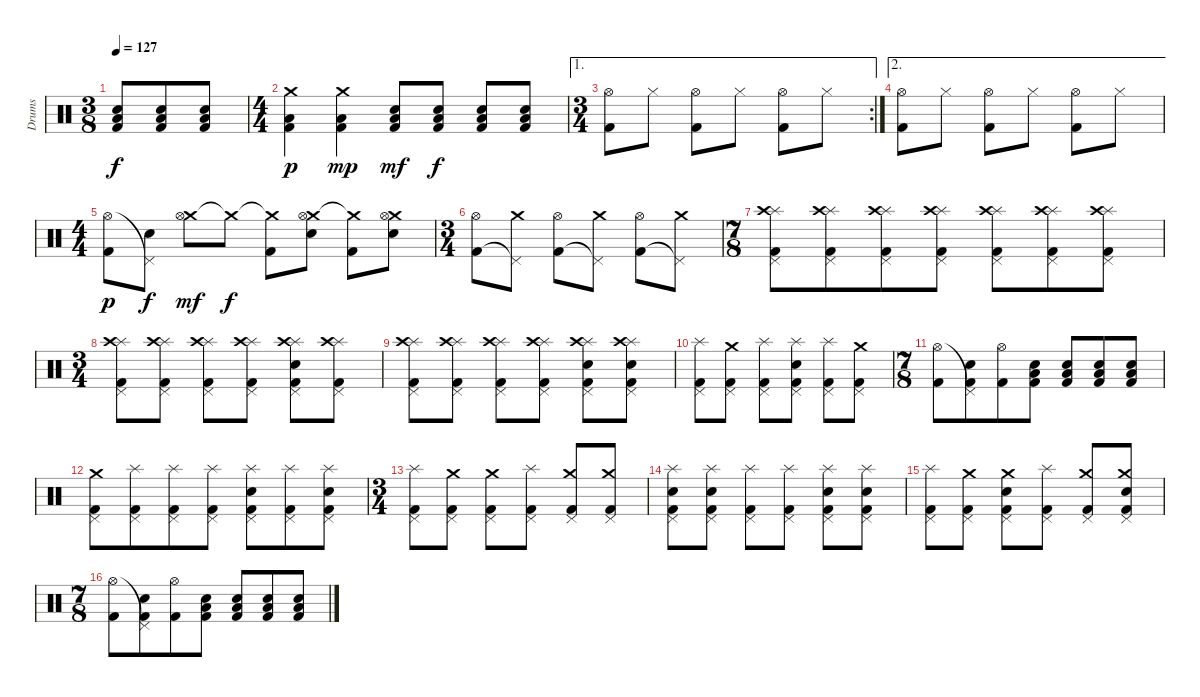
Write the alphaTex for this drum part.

\track ("Drums" "Drums") {instrument percussion}
\staff {score}
\articulation defaults
\ts (3 8)
\tempo 127
\clef neutral
\ks c
("Low Tom (hit)" "Electric Snare (hit)" "Kick (hit) 2").8{dy f} ("Low Tom (hit)" "Electric Snare (hit)" "Kick (hit) 2").8 ("Low Tom (hit)" "Electric Snare (hit)" "Kick (hit) 2").8 |
\ts (4 4)
("Crash medium (hit)" "Low Tom (hit)" "Kick (hit) 2").4{dy p} ("Crash medium (hit)" "Low Tom (hit)" "Kick (hit) 2").4{dy mp} ("Low Tom (hit)" "Electric Snare (hit)" "Kick (hit) 2").8{dy mf} ("Low Tom (hit)" "Electric Snare (hit)" "Kick (hit) 2").8{dy f} ("Low Tom (hit)" "Electric Snare (hit)" "Kick (hit) 2").8 ("Low Tom (hit)" "Electric Snare (hit)" "Kick (hit) 2").8 |
\ae 1
\rc 2
\ts (3 4)
("Hi-Hat (open)" "Kick (hit) 2").8 "Hi-Hat (closed)".8 ("Hi-Hat (open)" "Kick (hit) 2").8 "Hi-Hat (closed)".8 ("Hi-Hat (open)" "Kick (hit) 2").8 "Hi-Hat (closed)".8 |
\ae 2
("Hi-Hat (open)" "Kick (hit) 2").8 "Hi-Hat (closed)".8 ("Hi-Hat (open)" "Kick (hit) 2").8 "Hi-Hat (closed)".8 ("Hi-Hat (open)" "Kick (hit) 2").8 "Hi-Hat (closed)".8 |
\ts (4 4)
("Hi-Hat (open)" "Kick (hit) 2").8{dy p} ("Pedal Hi-Hat (hit)"{t} "Electric Snare (hit)").8{dy f} ("Crash medium (hit)" "Hi-Hat (open)").8{dy mf} "Crash medium (hit)"{t}.8{dy f} ("Crash medium (hit)"{t} "Kick (hit) 2").8 ("Crash medium (hit)" "Hi-Hat (open)" "Electric Snare (hit)").8 ("Crash medium (hit)"{t} "Kick (hit) 2").8 ("Crash medium (hit)" "Hi-Hat (open)" "Electric Snare (hit)").8 |
\ts (3 4)
("Hi-Hat (open)" "Kick (hit) 2").8 ("Crash medium (hit)" "Pedal Hi-Hat (hit)"{t}).8 ("Hi-Hat (open)" "Kick (hit) 2").8 ("Crash medium (hit)" "Pedal Hi-Hat (hit)"{t}).8 ("Hi-Hat (open)" "Kick (hit) 2").8 ("Crash medium (hit)" "Pedal Hi-Hat (hit)"{t}).8 |
\ts (7 8)
("Splash (hit)" "Crash high (hit)" "Pedal Hi-Hat (hit)" "Kick (hit) 2").8 ("Splash (hit)" "Crash high (hit)" "Pedal Hi-Hat (hit)" "Kick (hit) 2").8 ("Splash (hit)" "Crash high (hit)" "Pedal Hi-Hat (hit)" "Kick (hit) 2").8 ("Splash (hit)" "Crash high (hit)" "Pedal Hi-Hat (hit)" "Kick (hit) 2").8 ("Splash (hit)" "Crash high (hit)" "Pedal Hi-Hat (hit)" "Kick (hit) 2").8 ("Splash (hit)" "Crash high (hit)" "Pedal Hi-Hat (hit)" "Kick (hit) 2").8 ("Splash (hit)" "Crash high (hit)" "Pedal Hi-Hat (hit)" "Kick (hit) 2").8 |
\ts (3 4)
("Splash (hit)" "Crash high (hit)" "Pedal Hi-Hat (hit)" "Kick (hit) 2").8 ("Splash (hit)" "Crash high (hit)" "Pedal Hi-Hat (hit)" "Kick (hit) 2").8 ("Splash (hit)" "Crash high (hit)" "Pedal Hi-Hat (hit)" "Kick (hit) 2").8 ("Splash (hit)" "Crash high (hit)" "Pedal Hi-Hat (hit)" "Kick (hit) 2").8 ("Splash (hit)" "Crash high (hit)" "Pedal Hi-Hat (hit)" "Electric Snare (hit)" "Kick (hit) 2").8 ("Splash (hit)" "Crash high (hit)" "Pedal Hi-Hat (hit)" "Kick (hit) 2").8 |
("Splash (hit)" "Crash high (hit)" "Pedal Hi-Hat (hit)" "Kick (hit) 2").8 ("Splash (hit)" "Crash high (hit)" "Pedal Hi-Hat (hit)" "Kick (hit) 2").8 ("Splash (hit)" "Crash high (hit)" "Pedal Hi-Hat (hit)" "Kick (hit) 2").8 ("Splash (hit)" "Crash high (hit)" "Pedal Hi-Hat (hit)" "Kick (hit) 2").8 ("Splash (hit)" "Crash high (hit)" "Pedal Hi-Hat (hit)" "Electric Snare (hit)" "Kick (hit) 2").8 ("Splash (hit)" "Crash high (hit)" "Pedal Hi-Hat (hit)" "Electric Snare (hit)" "Kick (hit) 2").8 |
("Splash (hit)" "Pedal Hi-Hat (hit)" "Kick (hit) 2").8 ("Crash medium (hit)" "Pedal Hi-Hat (hit)" "Kick (hit) 2").8 ("Splash (hit)" "Pedal Hi-Hat (hit)" "Kick (hit) 2").8 ("Splash (hit)" "Pedal Hi-Hat (hit)" "Electric Snare (hit)" "Kick (hit) 2").8 ("Splash (hit)" "Pedal Hi-Hat (hit)" "Kick (hit) 2").8 ("Crash medium (hit)" "Pedal Hi-Hat (hit)" "Kick (hit) 2").8 |
\ts (7 8)
("Hi-Hat (open)" "Kick (hit) 2").8 ("Pedal Hi-Hat (hit)"{t} "Electric Snare (hit)" "Kick (hit) 2").8 ("Hi-Hat (open)" "Kick (hit) 2").8 ("Low Tom (hit)" "Electric Snare (hit)" "Kick (hit) 2").8 ("Low Tom (hit)" "Electric Snare (hit)" "Kick (hit) 2").8 ("Low Tom (hit)" "Electric Snare (hit)" "Kick (hit) 2").8 ("Low Tom (hit)" "Electric Snare (hit)" "Kick (hit) 2").8 |
("Crash medium (hit)" "Pedal Hi-Hat (hit)" "Kick (hit) 2").8 ("Splash (hit)" "Pedal Hi-Hat (hit)" "Kick (hit) 2").8 ("Splash (hit)" "Pedal Hi-Hat (hit)" "Kick (hit) 2").8 ("Splash (hit)" "Pedal Hi-Hat (hit)" "Kick (hit) 2").8 ("Splash (hit)" "Pedal Hi-Hat (hit)" "Electric Snare (hit)" "Kick (hit) 2").8 ("Splash (hit)" "Pedal Hi-Hat (hit)" "Kick (hit) 2").8 ("Splash (hit)" "Pedal Hi-Hat (hit)" "Electric Snare (hit)" "Kick (hit) 2").8 |
\ts (3 4)
("Splash (hit)" "Pedal Hi-Hat (hit)" "Kick (hit) 2").8 ("Crash medium (hit)" "Pedal Hi-Hat (hit)" "Kick (hit) 2").8 ("Crash medium (hit)" "Pedal Hi-Hat (hit)" "Kick (hit) 2").8 ("Splash (hit)" "Pedal Hi-Hat (hit)" "Kick (hit) 2").8 ("Crash medium (hit)" "Pedal Hi-Hat (hit)" "Kick (hit) 2").8 ("Crash medium (hit)" "Pedal Hi-Hat (hit)" "Kick (hit) 2").8 |
("Splash (hit)" "Pedal Hi-Hat (hit)" "Electric Snare (hit)" "Kick (hit) 2").8 ("Splash (hit)" "Pedal Hi-Hat (hit)" "Electric Snare (hit)" "Kick (hit) 2").8 ("Splash (hit)" "Pedal Hi-Hat (hit)" "Kick (hit) 2").8 ("Splash (hit)" "Pedal Hi-Hat (hit)" "Kick (hit) 2").8 ("Splash (hit)" "Pedal Hi-Hat (hit)" "Electric Snare (hit)" "Kick (hit) 2").8 ("Splash (hit)" "Pedal Hi-Hat (hit)" "Electric Snare (hit)" "Kick (hit) 2").8 |
("Splash (hit)" "Pedal Hi-Hat (hit)" "Kick (hit) 2").8 ("Crash medium (hit)" "Pedal Hi-Hat (hit)" "Kick (hit) 2").8 ("Crash medium (hit)" "Pedal Hi-Hat (hit)" "Electric Snare (hit)" "Kick (hit) 2").8 ("Splash (hit)" "Pedal Hi-Hat (hit)" "Kick (hit) 2").8 ("Crash medium (hit)" "Pedal Hi-Hat (hit)" "Kick (hit) 2").8 ("Crash medium (hit)" "Pedal Hi-Hat (hit)" "Electric Snare (hit)" "Kick (hit) 2").8 |
\ts (7 8)
("Hi-Hat (open)" "Kick (hit) 2").8 ("Pedal Hi-Hat (hit)"{t} "Electric Snare (hit)" "Kick (hit) 2").8 ("Hi-Hat (open)" "Kick (hit) 2").8 ("Low Tom (hit)" "Electric Snare (hit)" "Kick (hit) 2").8 ("Low Tom (hit)" "Electric Snare (hit)" "Kick (hit) 2").8 ("Low Tom (hit)" "Electric Snare (hit)" "Kick (hit) 2").8 ("Low Tom (hit)" "Electric Snare (hit)" "Kick (hit) 2").8
